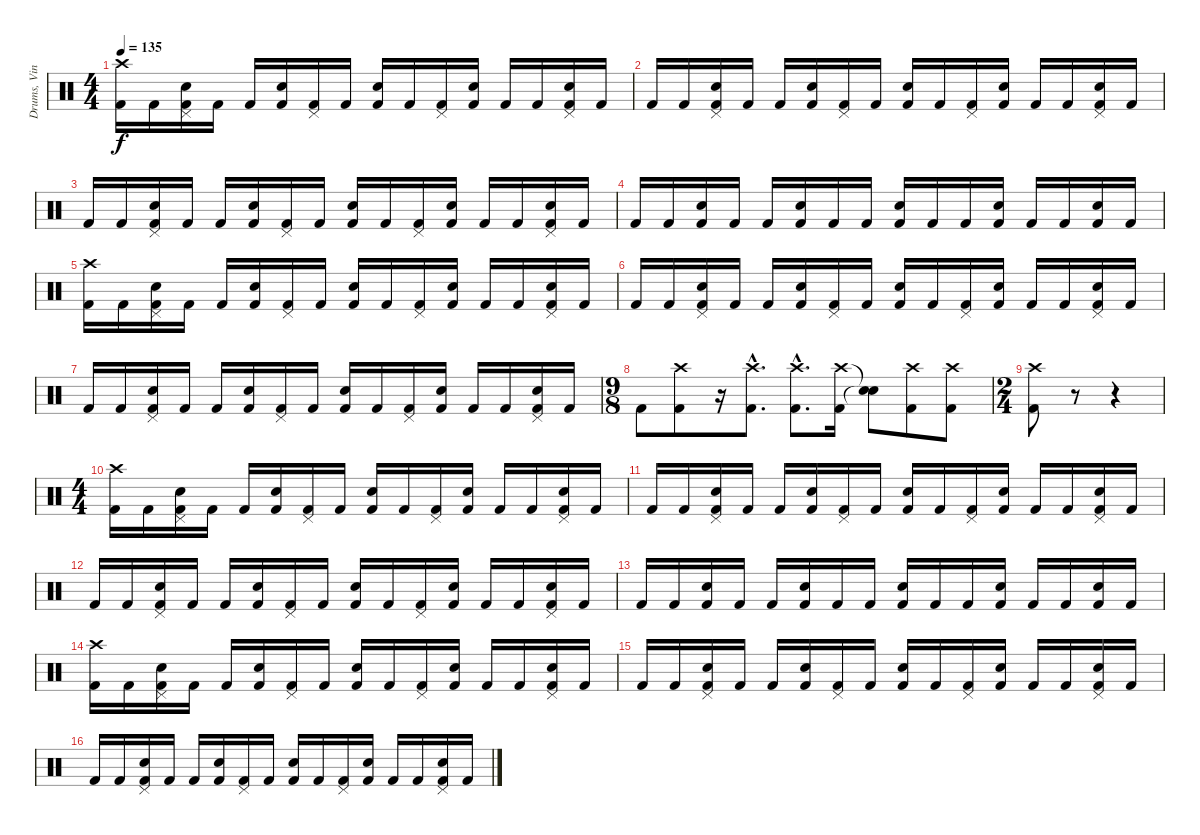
\track ("Drums, Vinnie" "Drums, Vin") {instrument percussion}
\staff {score}
\articulation defaults
\ts (4 4)
\tempo 135
\clef neutral
\ks c
("Crash high (hit)" "Kick (hit) 2").16{dy f} "Kick (hit) 2".16 ("Pedal Hi-Hat (hit)" "Electric Snare (hit)" "Kick (hit) 2").16 "Kick (hit) 2".16 "Kick (hit) 2".16 ("Electric Snare (hit)" "Kick (hit) 2").16 ("Pedal Hi-Hat (hit)" "Kick (hit) 2").16 "Kick (hit) 2".16 ("Electric Snare (hit)" "Kick (hit) 2").16 "Kick (hit) 2".16 ("Pedal Hi-Hat (hit)" "Kick (hit) 2").16 ("Electric Snare (hit)" "Kick (hit) 2").16 "Kick (hit) 2".16 "Kick (hit) 2".16 ("Pedal Hi-Hat (hit)" "Electric Snare (hit)" "Kick (hit) 2").16 "Kick (hit) 2".16 |
"Kick (hit) 2".16 "Kick (hit) 2".16 ("Pedal Hi-Hat (hit)" "Electric Snare (hit)" "Kick (hit) 2").16 "Kick (hit) 2".16 "Kick (hit) 2".16 ("Electric Snare (hit)" "Kick (hit) 2").16 ("Pedal Hi-Hat (hit)" "Kick (hit) 2").16 "Kick (hit) 2".16 ("Electric Snare (hit)" "Kick (hit) 2").16 "Kick (hit) 2".16 ("Pedal Hi-Hat (hit)" "Kick (hit) 2").16 ("Electric Snare (hit)" "Kick (hit) 2").16 "Kick (hit) 2".16 "Kick (hit) 2".16 ("Pedal Hi-Hat (hit)" "Electric Snare (hit)" "Kick (hit) 2").16 "Kick (hit) 2".16 |
"Kick (hit) 2".16 "Kick (hit) 2".16 ("Pedal Hi-Hat (hit)" "Electric Snare (hit)" "Kick (hit) 2").16 "Kick (hit) 2".16 "Kick (hit) 2".16 ("Electric Snare (hit)" "Kick (hit) 2").16 ("Pedal Hi-Hat (hit)" "Kick (hit) 2").16 "Kick (hit) 2".16 ("Electric Snare (hit)" "Kick (hit) 2").16 "Kick (hit) 2".16 ("Pedal Hi-Hat (hit)" "Kick (hit) 2").16 ("Electric Snare (hit)" "Kick (hit) 2").16 "Kick (hit) 2".16 "Kick (hit) 2".16 ("Pedal Hi-Hat (hit)" "Electric Snare (hit)" "Kick (hit) 2").16 "Kick (hit) 2".16 |
"Kick (hit) 2".16 "Kick (hit) 2".16 ("Electric Snare (hit)" "Kick (hit) 2").16 "Kick (hit) 2".16 "Kick (hit) 2".16 ("Electric Snare (hit)" "Kick (hit) 2").16 "Kick (hit) 2".16 "Kick (hit) 2".16 ("Electric Snare (hit)" "Kick (hit) 2").16 "Kick (hit) 2".16 "Kick (hit) 2".16 ("Electric Snare (hit)" "Kick (hit) 2").16 "Kick (hit) 2".16 "Kick (hit) 2".16 ("Electric Snare (hit)" "Kick (hit) 2").16 "Kick (hit) 2".16 |
("Crash high (hit)" "Kick (hit) 2").16 "Kick (hit) 2".16 ("Pedal Hi-Hat (hit)" "Electric Snare (hit)" "Kick (hit) 2").16 "Kick (hit) 2".16 "Kick (hit) 2".16 ("Electric Snare (hit)" "Kick (hit) 2").16 ("Pedal Hi-Hat (hit)" "Kick (hit) 2").16 "Kick (hit) 2".16 ("Electric Snare (hit)" "Kick (hit) 2").16 "Kick (hit) 2".16 ("Pedal Hi-Hat (hit)" "Kick (hit) 2").16 ("Electric Snare (hit)" "Kick (hit) 2").16 "Kick (hit) 2".16 "Kick (hit) 2".16 ("Pedal Hi-Hat (hit)" "Electric Snare (hit)" "Kick (hit) 2").16 "Kick (hit) 2".16 |
"Kick (hit) 2".16 "Kick (hit) 2".16 ("Pedal Hi-Hat (hit)" "Electric Snare (hit)" "Kick (hit) 2").16 "Kick (hit) 2".16 "Kick (hit) 2".16 ("Electric Snare (hit)" "Kick (hit) 2").16 ("Pedal Hi-Hat (hit)" "Kick (hit) 2").16 "Kick (hit) 2".16 ("Electric Snare (hit)" "Kick (hit) 2").16 "Kick (hit) 2".16 ("Pedal Hi-Hat (hit)" "Kick (hit) 2").16 ("Electric Snare (hit)" "Kick (hit) 2").16 "Kick (hit) 2".16 "Kick (hit) 2".16 ("Pedal Hi-Hat (hit)" "Electric Snare (hit)" "Kick (hit) 2").16 "Kick (hit) 2".16 |
"Kick (hit) 2".16 "Kick (hit) 2".16 ("Pedal Hi-Hat (hit)" "Electric Snare (hit)" "Kick (hit) 2").16 "Kick (hit) 2".16 "Kick (hit) 2".16 ("Electric Snare (hit)" "Kick (hit) 2").16 ("Pedal Hi-Hat (hit)" "Kick (hit) 2").16 "Kick (hit) 2".16 ("Electric Snare (hit)" "Kick (hit) 2").16 "Kick (hit) 2".16 ("Pedal Hi-Hat (hit)" "Kick (hit) 2").16 ("Electric Snare (hit)" "Kick (hit) 2").16 "Kick (hit) 2".16 "Kick (hit) 2".16 ("Pedal Hi-Hat (hit)" "Electric Snare (hit)" "Kick (hit) 2").16 "Kick (hit) 2".16 |
\ts (9 8)
"Kick (hit) 2".8 ("Crash high (hit)" "Kick (hit) 2").8 r.16 ("Crash high (hit)"{hac} "Kick (hit) 2"{hac}).8{d} ("Crash high (hit)"{hac} "Kick (hit) 2"{hac}).8{d} ("Crash high (hit)" "Kick (hit) 2").16 ("Snare (hit)"{t} "Snare (hit)"{t}).8 ("Crash high (hit)" "Kick (hit) 2").8 ("Crash high (hit)" "Kick (hit) 2").8 |
\ts (2 4)
("Crash high (hit)" "Kick (hit) 2").8 r.8 r.4 |
\ts (4 4)
("Crash high (hit)" "Kick (hit) 2").16 "Kick (hit) 2".16 ("Pedal Hi-Hat (hit)" "Electric Snare (hit)" "Kick (hit) 2").16 "Kick (hit) 2".16 "Kick (hit) 2".16 ("Electric Snare (hit)" "Kick (hit) 2").16 ("Pedal Hi-Hat (hit)" "Kick (hit) 2").16 "Kick (hit) 2".16 ("Electric Snare (hit)" "Kick (hit) 2").16 "Kick (hit) 2".16 ("Pedal Hi-Hat (hit)" "Kick (hit) 2").16 ("Electric Snare (hit)" "Kick (hit) 2").16 "Kick (hit) 2".16 "Kick (hit) 2".16 ("Pedal Hi-Hat (hit)" "Electric Snare (hit)" "Kick (hit) 2").16 "Kick (hit) 2".16 |
"Kick (hit) 2".16 "Kick (hit) 2".16 ("Pedal Hi-Hat (hit)" "Electric Snare (hit)" "Kick (hit) 2").16 "Kick (hit) 2".16 "Kick (hit) 2".16 ("Electric Snare (hit)" "Kick (hit) 2").16 ("Pedal Hi-Hat (hit)" "Kick (hit) 2").16 "Kick (hit) 2".16 ("Electric Snare (hit)" "Kick (hit) 2").16 "Kick (hit) 2".16 ("Pedal Hi-Hat (hit)" "Kick (hit) 2").16 ("Electric Snare (hit)" "Kick (hit) 2").16 "Kick (hit) 2".16 "Kick (hit) 2".16 ("Pedal Hi-Hat (hit)" "Electric Snare (hit)" "Kick (hit) 2").16 "Kick (hit) 2".16 |
"Kick (hit) 2".16 "Kick (hit) 2".16 ("Pedal Hi-Hat (hit)" "Electric Snare (hit)" "Kick (hit) 2").16 "Kick (hit) 2".16 "Kick (hit) 2".16 ("Electric Snare (hit)" "Kick (hit) 2").16 ("Pedal Hi-Hat (hit)" "Kick (hit) 2").16 "Kick (hit) 2".16 ("Electric Snare (hit)" "Kick (hit) 2").16 "Kick (hit) 2".16 ("Pedal Hi-Hat (hit)" "Kick (hit) 2").16 ("Electric Snare (hit)" "Kick (hit) 2").16 "Kick (hit) 2".16 "Kick (hit) 2".16 ("Pedal Hi-Hat (hit)" "Electric Snare (hit)" "Kick (hit) 2").16 "Kick (hit) 2".16 |
"Kick (hit) 2".16 "Kick (hit) 2".16 ("Electric Snare (hit)" "Kick (hit) 2").16 "Kick (hit) 2".16 "Kick (hit) 2".16 ("Electric Snare (hit)" "Kick (hit) 2").16 "Kick (hit) 2".16 "Kick (hit) 2".16 ("Electric Snare (hit)" "Kick (hit) 2").16 "Kick (hit) 2".16 "Kick (hit) 2".16 ("Electric Snare (hit)" "Kick (hit) 2").16 "Kick (hit) 2".16 "Kick (hit) 2".16 ("Electric Snare (hit)" "Kick (hit) 2").16 "Kick (hit) 2".16 |
("Crash high (hit)" "Kick (hit) 2").16 "Kick (hit) 2".16 ("Pedal Hi-Hat (hit)" "Electric Snare (hit)" "Kick (hit) 2").16 "Kick (hit) 2".16 "Kick (hit) 2".16 ("Electric Snare (hit)" "Kick (hit) 2").16 ("Pedal Hi-Hat (hit)" "Kick (hit) 2").16 "Kick (hit) 2".16 ("Electric Snare (hit)" "Kick (hit) 2").16 "Kick (hit) 2".16 ("Pedal Hi-Hat (hit)" "Kick (hit) 2").16 ("Electric Snare (hit)" "Kick (hit) 2").16 "Kick (hit) 2".16 "Kick (hit) 2".16 ("Pedal Hi-Hat (hit)" "Electric Snare (hit)" "Kick (hit) 2").16 "Kick (hit) 2".16 |
"Kick (hit) 2".16 "Kick (hit) 2".16 ("Pedal Hi-Hat (hit)" "Electric Snare (hit)" "Kick (hit) 2").16 "Kick (hit) 2".16 "Kick (hit) 2".16 ("Electric Snare (hit)" "Kick (hit) 2").16 ("Pedal Hi-Hat (hit)" "Kick (hit) 2").16 "Kick (hit) 2".16 ("Electric Snare (hit)" "Kick (hit) 2").16 "Kick (hit) 2".16 ("Pedal Hi-Hat (hit)" "Kick (hit) 2").16 ("Electric Snare (hit)" "Kick (hit) 2").16 "Kick (hit) 2".16 "Kick (hit) 2".16 ("Pedal Hi-Hat (hit)" "Electric Snare (hit)" "Kick (hit) 2").16 "Kick (hit) 2".16 |
"Kick (hit) 2".16 "Kick (hit) 2".16 ("Pedal Hi-Hat (hit)" "Electric Snare (hit)" "Kick (hit) 2").16 "Kick (hit) 2".16 "Kick (hit) 2".16 ("Electric Snare (hit)" "Kick (hit) 2").16 ("Pedal Hi-Hat (hit)" "Kick (hit) 2").16 "Kick (hit) 2".16 ("Electric Snare (hit)" "Kick (hit) 2").16 "Kick (hit) 2".16 ("Pedal Hi-Hat (hit)" "Kick (hit) 2").16 ("Electric Snare (hit)" "Kick (hit) 2").16 "Kick (hit) 2".16 "Kick (hit) 2".16 ("Pedal Hi-Hat (hit)" "Electric Snare (hit)" "Kick (hit) 2").16 "Kick (hit) 2".16
